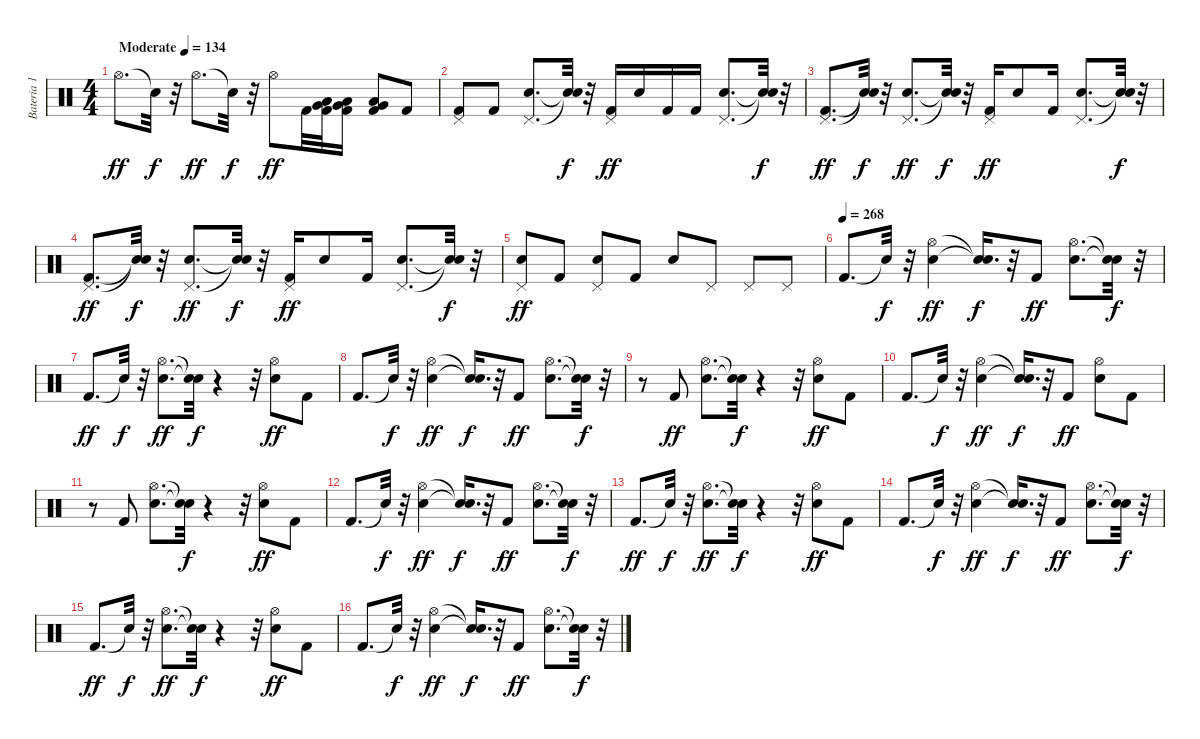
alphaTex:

\track ("Bateria 1" "Bateria 1") {instrument percussion}
\staff {score}
\articulation defaults
\ts (4 4)
\tempo (134 "Moderate")
\clef neutral
\ks c "Hi-Hat (open)".8{d dy ff} "Snare (hit)"{t}.32{dy f}
r.32 "Hi-Hat (open)".8{d dy ff} "Snare (hit)"{t}.32{dy f} r.32 "Hi-Hat (open)".8{dy ff} "Kick (hit) 2".32 ("Kick (hit) 2" "Low Floor Tom (hit)" "Very Low Tom (hit)").32 ("Kick (hit) 2" "Low Floor Tom (hit)" "Very Low Tom (hit)").16 ("Kick (hit) 2" "Low Floor Tom (hit)" "Very Low Tom (hit)").8 "Kick (hit) 2".8 |
("Kick (hit) 2" "Pedal Hi-Hat (hit)").8 "Kick (hit) 2".8 ("Electric Snare (hit)" "Pedal Hi-Hat (hit)").8{d} ("Snare (hit)"{t} "Snare (hit)"{t}).32{dy f} r.32 ("Kick (hit) 2" "Pedal Hi-Hat (hit)").16{dy ff} "Electric Snare (hit)".16 "Kick (hit) 2".16 "Kick (hit) 2".16 ("Electric Snare (hit)" "Pedal Hi-Hat (hit)").8{d} ("Snare (hit)"{t} "Snare (hit)"{t}).32{dy f} r.32 |
("Kick (hit) 2" "Pedal Hi-Hat (hit)").8{d dy ff} ("Snare (hit)"{t} "Snare (hit)"{t}).32{dy f} r.32 ("Electric Snare (hit)" "Pedal Hi-Hat (hit)").8{d dy ff} ("Snare (hit)"{t} "Snare (hit)"{t}).32{dy f} r.32 ("Kick (hit) 2" "Pedal Hi-Hat (hit)").16{dy ff} "Electric Snare (hit)".8 "Kick (hit) 2".16 ("Electric Snare (hit)" "Pedal Hi-Hat (hit)").8{d} ("Snare (hit)"{t} "Snare (hit)"{t}).32{dy f} r.32 |
("Kick (hit) 2" "Pedal Hi-Hat (hit)").8{d dy ff} ("Snare (hit)"{t} "Snare (hit)"{t}).32{dy f} r.32 ("Electric Snare (hit)" "Pedal Hi-Hat (hit)").8{d dy ff} ("Snare (hit)"{t} "Snare (hit)"{t}).32{dy f} r.32 ("Kick (hit) 2" "Pedal Hi-Hat (hit)").16{dy ff} "Electric Snare (hit)".8 "Kick (hit) 2".16 ("Electric Snare (hit)" "Pedal Hi-Hat (hit)").8{d} ("Snare (hit)"{t} "Snare (hit)"{t}).32{dy f} r.32 |
("Electric Snare (hit)" "Pedal Hi-Hat (hit)").8{dy ff} "Kick (hit) 2".8 ("Electric Snare (hit)" "Pedal Hi-Hat (hit)").8 "Kick (hit) 2".8 "Electric Snare (hit)".8 "Pedal Hi-Hat (hit)".8 "Pedal Hi-Hat (hit)".8 "Pedal Hi-Hat (hit)".8 |
\tempo (268)
"Kick (hit) 2".8{d} "Snare (hit)"{t}.32{dy f} r.32 ("Electric Snare (hit)" "Hi-Hat (open)").4{dy ff} ("Snare (hit)"{t} "Snare (hit)"{t}).16{d dy f} r.32 "Kick (hit) 2".8{dy ff} ("Electric Snare (hit)" "Hi-Hat (open)").8{d} ("Snare (hit)"{t} "Snare (hit)"{t}).32{dy f} r.32 |
"Kick (hit) 2".8{d dy ff} "Snare (hit)"{t}.32{dy f} r.32 ("Electric Snare (hit)" "Hi-Hat (open)").8{d dy ff} ("Snare (hit)"{t} "Snare (hit)"{t}).32{dy f} r.4 r.32 ("Electric Snare (hit)" "Hi-Hat (open)").8{dy ff} "Kick (hit) 2".8 |
"Kick (hit) 2".8{d} "Snare (hit)"{t}.32{dy f} r.32 ("Electric Snare (hit)" "Hi-Hat (open)").4{dy ff} ("Snare (hit)"{t} "Snare (hit)"{t}).16{d dy f} r.32 "Kick (hit) 2".8{dy ff} ("Electric Snare (hit)" "Hi-Hat (open)").8{d} ("Snare (hit)"{t} "Snare (hit)"{t}).32{dy f} r.32 |
r.8 "Kick (hit) 2".8{dy ff} ("Electric Snare (hit)" "Hi-Hat (open)").8{d} ("Snare (hit)"{t} "Snare (hit)"{t}).32{dy f} r.4 r.32 ("Electric Snare (hit)" "Hi-Hat (open)").8{dy ff} "Kick (hit) 2".8 |
"Kick (hit) 2".8{d} "Snare (hit)"{t}.32{dy f} r.32 ("Electric Snare (hit)" "Hi-Hat (open)").4{dy ff} ("Snare (hit)"{t} "Snare (hit)"{t}).16{d dy f} r.32 "Kick (hit) 2".8{dy ff} ("Electric Snare (hit)" "Hi-Hat (open)").8 "Kick (hit) 2".8 |
r.8 "Kick (hit) 2".8 ("Electric Snare (hit)" "Hi-Hat (open)").8{d} ("Snare (hit)"{t} "Snare (hit)"{t}).32{dy f} r.4 r.32 ("Electric Snare (hit)" "Hi-Hat (open)").8{dy ff} "Kick (hit) 2".8 |
"Kick (hit) 2".8{d} "Snare (hit)"{t}.32{dy f} r.32 ("Electric Snare (hit)" "Hi-Hat (open)").4{dy ff} ("Snare (hit)"{t} "Snare (hit)"{t}).16{d dy f} r.32 "Kick (hit) 2".8{dy ff} ("Electric Snare (hit)" "Hi-Hat (open)").8{d} ("Snare (hit)"{t} "Snare (hit)"{t}).32{dy f} r.32 |
"Kick (hit) 2".8{d dy ff} "Snare (hit)"{t}.32{dy f} r.32 ("Electric Snare (hit)" "Hi-Hat (open)").8{d dy ff} ("Snare (hit)"{t} "Snare (hit)"{t}).32{dy f} r.4 r.32 ("Electric Snare (hit)" "Hi-Hat (open)").8{dy ff} "Kick (hit) 2".8 |
"Kick (hit) 2".8{d} "Snare (hit)"{t}.32{dy f} r.32 ("Electric Snare (hit)" "Hi-Hat (open)").4{dy ff} ("Snare (hit)"{t} "Snare (hit)"{t}).16{d dy f} r.32 "Kick (hit) 2".8{dy ff} ("Electric Snare (hit)" "Hi-Hat (open)").8{d} ("Snare (hit)"{t} "Snare (hit)"{t}).32{dy f} r.32 |
"Kick (hit) 2".8{d dy ff} "Snare (hit)"{t}.32{dy f} r.32 ("Electric Snare (hit)" "Hi-Hat (open)").8{d dy ff} ("Snare (hit)"{t} "Snare (hit)"{t}).32{dy f} r.4 r.32 ("Electric Snare (hit)" "Hi-Hat (open)").8{dy ff} "Kick (hit) 2".8 |
"Kick (hit) 2".8{d} "Snare (hit)"{t}.32{dy f} r.32 ("Electric Snare (hit)" "Hi-Hat (open)").4{dy ff} ("Snare (hit)"{t} "Snare (hit)"{t}).16{d dy f} r.32 "Kick (hit) 2".8{dy ff} ("Electric Snare (hit)" "Hi-Hat (open)").8{d} ("Snare (hit)"{t} "Snare (hit)"{t}).32{dy f} r.32
